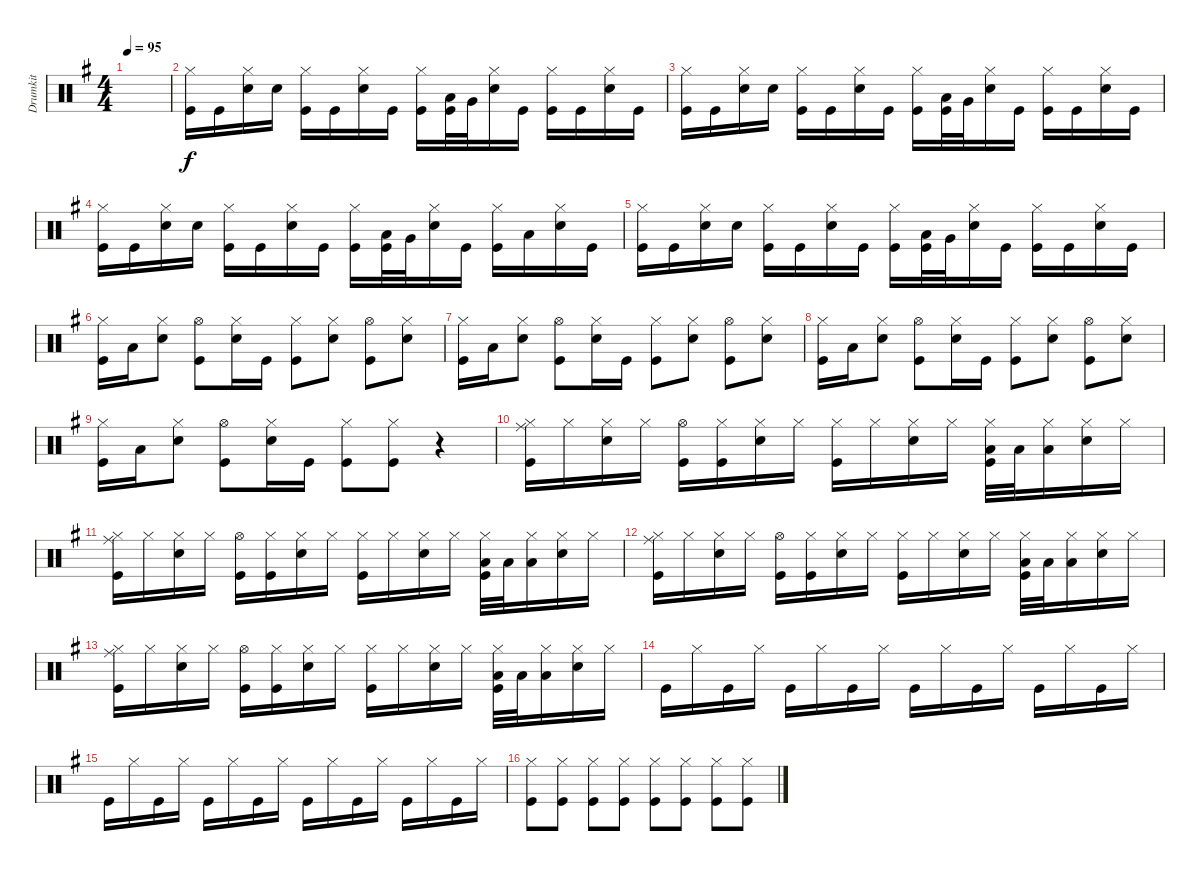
\track ("Drumkit" "Drumkit") {solo instrument percussion}
\staff {score}
\articulation defaults
\ts (4 4)
\tempo 95
\clef neutral
\ks g
|
("Kick (hit)" "Hi-Hat (closed)").16 "Kick (hit)".16 ("Snare (hit) 2" "Hi-Hat (closed)").16 "Snare (hit) 2".16 ("Kick (hit)" "Hi-Hat (closed)").16 "Kick (hit)".16 ("Snare (hit) 2" "Hi-Hat (closed)").16 "Kick (hit)".16 ("Kick (hit)" "Hi-Hat (closed)").16 ("Kick (hit)" "Low Tom (hit)").32 "Very Low Tom (hit)".32 ("Snare (hit) 2" "Hi-Hat (closed)").16 "Kick (hit)".16 ("Kick (hit)" "Hi-Hat (closed)").16 "Kick (hit)".16 ("Snare (hit) 2" "Hi-Hat (closed)").16 "Kick (hit)".16 |
("Kick (hit)" "Hi-Hat (closed)").16 "Kick (hit)".16 ("Snare (hit) 2" "Hi-Hat (closed)").16 "Snare (hit) 2".16 ("Kick (hit)" "Hi-Hat (closed)").16 "Kick (hit)".16 ("Snare (hit) 2" "Hi-Hat (closed)").16 "Kick (hit)".16 ("Kick (hit)" "Hi-Hat (closed)").16 ("Kick (hit)" "Low Tom (hit)").32 "Very Low Tom (hit)".32 ("Snare (hit) 2" "Hi-Hat (closed)").16 "Kick (hit)".16 ("Kick (hit)" "Hi-Hat (closed)").16 "Kick (hit)".16 ("Snare (hit) 2" "Hi-Hat (closed)").16 "Kick (hit)".16 |
("Kick (hit)" "Hi-Hat (closed)").16 "Kick (hit)".16 ("Snare (hit) 2" "Hi-Hat (closed)").16 "Snare (hit) 2".16 ("Kick (hit)" "Hi-Hat (closed)").16 "Kick (hit)".16 ("Snare (hit) 2" "Hi-Hat (closed)").16 "Kick (hit)".16 ("Kick (hit)" "Hi-Hat (closed)").16 ("Kick (hit)" "Low Tom (hit)").32 "Very Low Tom (hit)".32 ("Snare (hit) 2" "Hi-Hat (closed)").16 "Kick (hit)".16 ("Kick (hit)" "Hi-Hat (closed)").16 "Low Floor Tom (hit)".16 ("Snare (hit) 2" "Hi-Hat (closed)").16 "Kick (hit)".16 |
("Kick (hit)" "Hi-Hat (closed)").16 "Kick (hit)".16 ("Snare (hit) 2" "Hi-Hat (closed)").16 "Snare (hit) 2".16 ("Kick (hit)" "Hi-Hat (closed)").16 "Kick (hit)".16 ("Snare (hit) 2" "Hi-Hat (closed)").16 "Kick (hit)".16 ("Kick (hit)" "Hi-Hat (closed)").16 ("Kick (hit)" "Low Tom (hit)").32 "Very Low Tom (hit)".32 ("Snare (hit) 2" "Hi-Hat (closed)").16 "Kick (hit)".16 ("Kick (hit)" "Hi-Hat (closed)").16 "Kick (hit)".16 ("Snare (hit) 2" "Hi-Hat (closed)").16 "Kick (hit)".16 |
("Kick (hit)" "Hi-Hat (closed)").16 "Low Tom (hit)".16 ("Snare (hit) 2" "Hi-Hat (closed)").8 ("Kick (hit)" "Hi-Hat (open)").8 ("Snare (hit) 2" "Hi-Hat (closed)").16 "Kick (hit)".16 ("Kick (hit)" "Hi-Hat (closed)").8 ("Snare (hit) 2" "Hi-Hat (closed)").8 ("Kick (hit)" "Hi-Hat (open)").8 ("Snare (hit) 2" "Hi-Hat (closed)").8 |
("Kick (hit)" "Hi-Hat (closed)").16 "Low Tom (hit)".16 ("Snare (hit) 2" "Hi-Hat (closed)").8 ("Kick (hit)" "Hi-Hat (open)").8 ("Snare (hit) 2" "Hi-Hat (closed)").16 "Kick (hit)".16 ("Kick (hit)" "Hi-Hat (closed)").8 ("Snare (hit) 2" "Hi-Hat (closed)").8 ("Kick (hit)" "Hi-Hat (open)").8 ("Snare (hit) 2" "Hi-Hat (closed)").8 |
("Kick (hit)" "Hi-Hat (closed)").16 "Low Tom (hit)".16 ("Snare (hit) 2" "Hi-Hat (closed)").8 ("Kick (hit)" "Hi-Hat (open)").8 ("Snare (hit) 2" "Hi-Hat (closed)").16 "Kick (hit)".16 ("Kick (hit)" "Hi-Hat (closed)").8 ("Snare (hit) 2" "Hi-Hat (closed)").8 ("Kick (hit)" "Hi-Hat (open)").8 ("Snare (hit) 2" "Hi-Hat (closed)").8 |
("Kick (hit)" "Hi-Hat (closed)").16 "Low Tom (hit)".16 ("Snare (hit) 2" "Hi-Hat (closed)").8 ("Kick (hit)" "Hi-Hat (open)").8 ("Snare (hit) 2" "Hi-Hat (closed)").16 "Kick (hit)".16 ("Kick (hit)" "Hi-Hat (closed)").8 ("Kick (hit)" "Hi-Hat (closed)").8 r.4 |
("Kick (hit)" "Hi-Hat (closed)" "Ride (middle)").16 "Hi-Hat (closed)".16 ("Snare (hit) 2" "Hi-Hat (closed)").16 "Hi-Hat (closed)".16 ("Kick (hit)" "Hi-Hat (open)").16 ("Kick (hit)" "Hi-Hat (closed)").16 ("Snare (hit) 2" "Hi-Hat (closed)").16 "Hi-Hat (closed)".16 ("Kick (hit)" "Hi-Hat (closed)").16 "Hi-Hat (closed)".16 ("Snare (hit) 2" "Hi-Hat (closed)").16 "Hi-Hat (closed)".16 ("Kick (hit)" "Hi-Hat (closed)" "Low Tom (hit)").32 "Low Tom (hit)".32 ("Low Tom (hit)" "Hi-Hat (closed)").16 ("Snare (hit) 2" "Hi-Hat (closed)").16 "Hi-Hat (closed)".16 |
("Kick (hit)" "Hi-Hat (closed)" "Ride (middle)").16 "Hi-Hat (closed)".16 ("Snare (hit) 2" "Hi-Hat (closed)").16 "Hi-Hat (closed)".16 ("Kick (hit)" "Hi-Hat (open)").16 ("Kick (hit)" "Hi-Hat (closed)").16 ("Snare (hit) 2" "Hi-Hat (closed)").16 "Hi-Hat (closed)".16 ("Kick (hit)" "Hi-Hat (closed)").16 "Hi-Hat (closed)".16 ("Snare (hit) 2" "Hi-Hat (closed)").16 "Hi-Hat (closed)".16 ("Kick (hit)" "Hi-Hat (closed)" "Low Tom (hit)").32 "Low Tom (hit)".32 ("Low Tom (hit)" "Hi-Hat (closed)").16 ("Snare (hit) 2" "Hi-Hat (closed)").16 "Hi-Hat (closed)".16 |
("Kick (hit)" "Hi-Hat (closed)" "Ride (middle)").16 "Hi-Hat (closed)".16 ("Snare (hit) 2" "Hi-Hat (closed)").16 "Hi-Hat (closed)".16 ("Kick (hit)" "Hi-Hat (open)").16 ("Kick (hit)" "Hi-Hat (closed)").16 ("Snare (hit) 2" "Hi-Hat (closed)").16 "Hi-Hat (closed)".16 ("Kick (hit)" "Hi-Hat (closed)").16 "Hi-Hat (closed)".16 ("Snare (hit) 2" "Hi-Hat (closed)").16 "Hi-Hat (closed)".16 ("Kick (hit)" "Hi-Hat (closed)" "Low Tom (hit)").32 "Low Tom (hit)".32 ("Low Tom (hit)" "Hi-Hat (closed)").16 ("Snare (hit) 2" "Hi-Hat (closed)").16 "Hi-Hat (closed)".16 |
("Kick (hit)" "Hi-Hat (closed)" "Ride (middle)").16 "Hi-Hat (closed)".16 ("Snare (hit) 2" "Hi-Hat (closed)").16 "Hi-Hat (closed)".16 ("Kick (hit)" "Hi-Hat (open)").16 ("Kick (hit)" "Hi-Hat (closed)").16 ("Snare (hit) 2" "Hi-Hat (closed)").16 "Hi-Hat (closed)".16 ("Kick (hit)" "Hi-Hat (closed)").16 "Hi-Hat (closed)".16 ("Snare (hit) 2" "Hi-Hat (closed)").16 "Hi-Hat (closed)".16 ("Kick (hit)" "Hi-Hat (closed)" "Low Tom (hit)").32 "Low Tom (hit)".32 ("Low Tom (hit)" "Hi-Hat (closed)").16 ("Snare (hit) 2" "Hi-Hat (closed)").16 "Hi-Hat (closed)".16 |
"Kick (hit)".16 "Hi-Hat (closed)".16 "Kick (hit)".16 "Hi-Hat (closed)".16 "Kick (hit)".16 "Hi-Hat (closed)".16 "Kick (hit)".16 "Hi-Hat (closed)".16 "Kick (hit)".16 "Hi-Hat (closed)".16 "Kick (hit)".16 "Hi-Hat (closed)".16 "Kick (hit)".16 "Hi-Hat (closed)".16 "Kick (hit)".16 "Hi-Hat (closed)".16 |
"Kick (hit)".16 "Hi-Hat (closed)".16 "Kick (hit)".16 "Hi-Hat (closed)".16 "Kick (hit)".16 "Hi-Hat (closed)".16 "Kick (hit)".16 "Hi-Hat (closed)".16 "Kick (hit)".16 "Hi-Hat (closed)".16 "Kick (hit)".16 "Hi-Hat (closed)".16 "Kick (hit)".16 "Hi-Hat (closed)".16 "Kick (hit)".16 "Hi-Hat (closed)".16 |
("Kick (hit)" "Hi-Hat (closed)").8 ("Kick (hit)" "Hi-Hat (closed)").8 ("Kick (hit)" "Hi-Hat (closed)").8 ("Kick (hit)" "Hi-Hat (closed)").8 ("Kick (hit)" "Hi-Hat (closed)").8 ("Kick (hit)" "Hi-Hat (closed)").8 ("Kick (hit)" "Hi-Hat (closed)").8 ("Kick (hit)" "Hi-Hat (closed)").8
